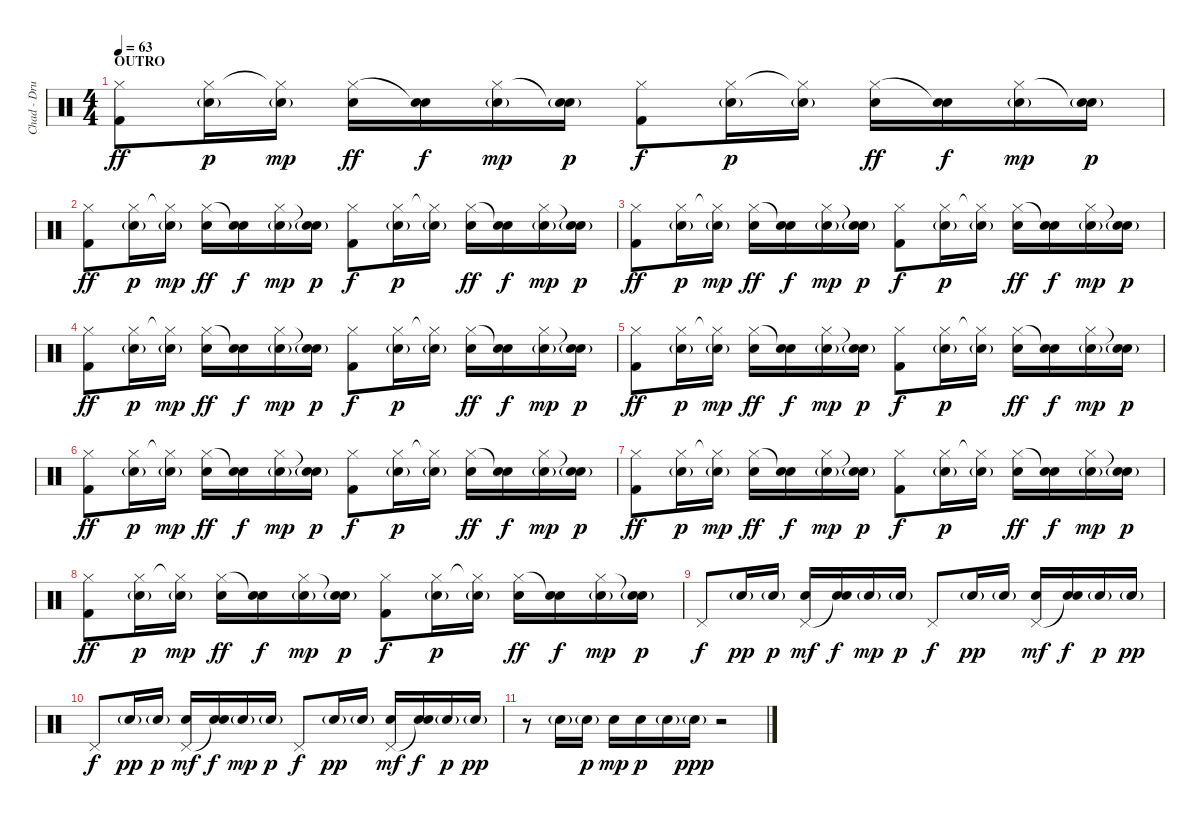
\track ("Chad - Drums" "Chad - Dru") {instrument percussion}
\staff {score}
\articulation defaults
\ts (4 4)
\section ("" "OUTRO")
\tempo 63
\clef neutral
\ks c
("Hi-Hat (closed)" "Kick (hit) 2").8{dy ff volume 12} ("Hi-Hat (closed)" "Snare (hit) 2"{g}).16{dy p} ("Hi-Hat (closed)"{t} "Snare (hit) 2"{g}).16{dy mp} ("Hi-Hat (closed)" "Snare (hit) 2").16{dy ff} ("Snare (hit)"{t} "Snare (hit) 2").16{dy f} ("Hi-Hat (closed)" "Snare (hit) 2"{g}).16{dy mp} ("Snare (hit)"{t} "Snare (hit) 2"{g}).16{dy p} ("Hi-Hat (closed)" "Kick (hit) 2").8{dy f} ("Hi-Hat (closed)" "Snare (hit) 2"{g}).16{dy p} ("Hi-Hat (closed)"{t} "Snare (hit) 2"{g}).16 ("Hi-Hat (closed)" "Snare (hit) 2").16{dy ff} ("Snare (hit)"{t} "Snare (hit) 2").16{dy f} ("Hi-Hat (closed)" "Snare (hit) 2"{g}).16{dy mp} ("Snare (hit)"{t} "Snare (hit) 2"{g}).16{dy p} |
("Hi-Hat (closed)" "Kick (hit) 2").8{dy ff volume 12} ("Hi-Hat (closed)" "Snare (hit) 2"{g}).16{dy p} ("Hi-Hat (closed)"{t} "Snare (hit) 2"{g}).16{dy mp} ("Hi-Hat (closed)" "Snare (hit) 2").16{dy ff} ("Snare (hit)"{t} "Snare (hit) 2").16{dy f} ("Hi-Hat (closed)" "Snare (hit) 2"{g}).16{dy mp} ("Snare (hit)"{t} "Snare (hit) 2"{g}).16{dy p} ("Hi-Hat (closed)" "Kick (hit) 2").8{dy f} ("Hi-Hat (closed)" "Snare (hit) 2"{g}).16{dy p} ("Hi-Hat (closed)"{t} "Snare (hit) 2"{g}).16 ("Hi-Hat (closed)" "Snare (hit) 2").16{dy ff} ("Snare (hit)"{t} "Snare (hit) 2").16{dy f} ("Hi-Hat (closed)" "Snare (hit) 2"{g}).16{dy mp} ("Snare (hit)"{t} "Snare (hit) 2"{g}).16{dy p} |
("Hi-Hat (closed)" "Kick (hit) 2").8{dy ff volume 12} ("Hi-Hat (closed)" "Snare (hit) 2"{g}).16{dy p} ("Hi-Hat (closed)"{t} "Snare (hit) 2"{g}).16{dy mp} ("Hi-Hat (closed)" "Snare (hit) 2").16{dy ff} ("Snare (hit)"{t} "Snare (hit) 2").16{dy f} ("Hi-Hat (closed)" "Snare (hit) 2"{g}).16{dy mp} ("Snare (hit)"{t} "Snare (hit) 2"{g}).16{dy p} ("Hi-Hat (closed)" "Kick (hit) 2").8{dy f} ("Hi-Hat (closed)" "Snare (hit) 2"{g}).16{dy p} ("Hi-Hat (closed)"{t} "Snare (hit) 2"{g}).16 ("Hi-Hat (closed)" "Snare (hit) 2").16{dy ff} ("Snare (hit)"{t} "Snare (hit) 2").16{dy f} ("Hi-Hat (closed)" "Snare (hit) 2"{g}).16{dy mp} ("Snare (hit)"{t} "Snare (hit) 2"{g}).16{dy p} |
("Hi-Hat (closed)" "Kick (hit) 2").8{dy ff volume 12} ("Hi-Hat (closed)" "Snare (hit) 2"{g}).16{dy p} ("Hi-Hat (closed)"{t} "Snare (hit) 2"{g}).16{dy mp} ("Hi-Hat (closed)" "Snare (hit) 2").16{dy ff} ("Snare (hit)"{t} "Snare (hit) 2").16{dy f} ("Hi-Hat (closed)" "Snare (hit) 2"{g}).16{dy mp} ("Snare (hit)"{t} "Snare (hit) 2"{g}).16{dy p} ("Hi-Hat (closed)" "Kick (hit) 2").8{dy f} ("Hi-Hat (closed)" "Snare (hit) 2"{g}).16{dy p} ("Hi-Hat (closed)"{t} "Snare (hit) 2"{g}).16 ("Hi-Hat (closed)" "Snare (hit) 2").16{dy ff} ("Snare (hit)"{t} "Snare (hit) 2").16{dy f} ("Hi-Hat (closed)" "Snare (hit) 2"{g}).16{dy mp} ("Snare (hit)"{t} "Snare (hit) 2"{g}).16{dy p} |
("Hi-Hat (closed)" "Kick (hit) 2").8{dy ff volume 12} ("Hi-Hat (closed)" "Snare (hit) 2"{g}).16{dy p} ("Hi-Hat (closed)"{t} "Snare (hit) 2"{g}).16{dy mp} ("Hi-Hat (closed)" "Snare (hit) 2").16{dy ff} ("Snare (hit)"{t} "Snare (hit) 2").16{dy f} ("Hi-Hat (closed)" "Snare (hit) 2"{g}).16{dy mp} ("Snare (hit)"{t} "Snare (hit) 2"{g}).16{dy p} ("Hi-Hat (closed)" "Kick (hit) 2").8{dy f} ("Hi-Hat (closed)" "Snare (hit) 2"{g}).16{dy p} ("Hi-Hat (closed)"{t} "Snare (hit) 2"{g}).16 ("Hi-Hat (closed)" "Snare (hit) 2").16{dy ff} ("Snare (hit)"{t} "Snare (hit) 2").16{dy f} ("Hi-Hat (closed)" "Snare (hit) 2"{g}).16{dy mp} ("Snare (hit)"{t} "Snare (hit) 2"{g}).16{dy p} |
("Hi-Hat (closed)" "Kick (hit) 2").8{dy ff volume 12} ("Hi-Hat (closed)" "Snare (hit) 2"{g}).16{dy p} ("Hi-Hat (closed)"{t} "Snare (hit) 2"{g}).16{dy mp} ("Hi-Hat (closed)" "Snare (hit) 2").16{dy ff} ("Snare (hit)"{t} "Snare (hit) 2").16{dy f} ("Hi-Hat (closed)" "Snare (hit) 2"{g}).16{dy mp} ("Snare (hit)"{t} "Snare (hit) 2"{g}).16{dy p} ("Hi-Hat (closed)" "Kick (hit) 2").8{dy f} ("Hi-Hat (closed)" "Snare (hit) 2"{g}).16{dy p} ("Hi-Hat (closed)"{t} "Snare (hit) 2"{g}).16 ("Hi-Hat (closed)" "Snare (hit) 2").16{dy ff} ("Snare (hit)"{t} "Snare (hit) 2").16{dy f} ("Hi-Hat (closed)" "Snare (hit) 2"{g}).16{dy mp} ("Snare (hit)"{t} "Snare (hit) 2"{g}).16{dy p} |
("Hi-Hat (closed)" "Kick (hit) 2").8{dy ff volume 12} ("Hi-Hat (closed)" "Snare (hit) 2"{g}).16{dy p} ("Hi-Hat (closed)"{t} "Snare (hit) 2"{g}).16{dy mp} ("Hi-Hat (closed)" "Snare (hit) 2").16{dy ff} ("Snare (hit)"{t} "Snare (hit) 2").16{dy f} ("Hi-Hat (closed)" "Snare (hit) 2"{g}).16{dy mp} ("Snare (hit)"{t} "Snare (hit) 2"{g}).16{dy p} ("Hi-Hat (closed)" "Kick (hit) 2").8{dy f} ("Hi-Hat (closed)" "Snare (hit) 2"{g}).16{dy p} ("Hi-Hat (closed)"{t} "Snare (hit) 2"{g}).16 ("Hi-Hat (closed)" "Snare (hit) 2").16{dy ff} ("Snare (hit)"{t} "Snare (hit) 2").16{dy f} ("Hi-Hat (closed)" "Snare (hit) 2"{g}).16{dy mp} ("Snare (hit)"{t} "Snare (hit) 2"{g}).16{dy p} |
("Hi-Hat (closed)" "Kick (hit) 2").8{dy ff volume 12} ("Hi-Hat (closed)" "Snare (hit) 2"{g}).16{dy p} ("Hi-Hat (closed)"{t} "Snare (hit) 2"{g}).16{dy mp} ("Hi-Hat (closed)" "Snare (hit) 2").16{dy ff} ("Snare (hit)"{t} "Snare (hit) 2").16{dy f} ("Hi-Hat (closed)" "Snare (hit) 2"{g}).16{dy mp} ("Snare (hit)"{t} "Snare (hit) 2"{g}).16{dy p} ("Hi-Hat (closed)" "Kick (hit) 2").8{dy f} ("Hi-Hat (closed)" "Snare (hit) 2"{g}).16{dy p} ("Hi-Hat (closed)"{t} "Snare (hit) 2"{g}).16 ("Hi-Hat (closed)" "Snare (hit) 2").16{dy ff} ("Snare (hit)"{t} "Snare (hit) 2").16{dy f} ("Hi-Hat (closed)" "Snare (hit) 2"{g}).16{dy mp} ("Snare (hit)"{t} "Snare (hit) 2"{g}).16{dy p} |
"Pedal Hi-Hat (hit)".8{dy f} "Snare (hit) 2"{g}.16{dy pp} "Snare (hit) 2"{g}.16{dy p} ("Pedal Hi-Hat (hit)" "Snare (hit) 2").16{dy mf} ("Snare (hit)"{t} "Snare (hit) 2").16{dy f} "Snare (hit) 2"{g}.16{dy mp} "Snare (hit) 2"{g}.16{dy p} "Pedal Hi-Hat (hit)".8{dy f} "Snare (hit) 2"{g}.16{dy pp} "Snare (hit) 2"{g}.16 ("Pedal Hi-Hat (hit)" "Snare (hit) 2").16{dy mf} ("Snare (hit)"{t} "Snare (hit) 2").16{dy f} "Snare (hit) 2"{g}.16{dy p} "Snare (hit) 2"{g}.16{dy pp} |
"Pedal Hi-Hat (hit)".8{dy f} "Snare (hit) 2"{g}.16{dy pp} "Snare (hit) 2"{g}.16{dy p} ("Pedal Hi-Hat (hit)" "Snare (hit) 2").16{dy mf} ("Snare (hit)"{t} "Snare (hit) 2").16{dy f} "Snare (hit) 2"{g}.16{dy mp} "Snare (hit) 2"{g}.16{dy p} "Pedal Hi-Hat (hit)".8{dy f} "Snare (hit) 2"{g}.16{dy pp} "Snare (hit) 2"{g}.16 ("Pedal Hi-Hat (hit)" "Snare (hit) 2").16{dy mf} ("Snare (hit)"{t} "Snare (hit) 2").16{dy f} "Snare (hit) 2"{g}.16{dy p} "Snare (hit) 2"{g}.16{dy pp} |
r.8 "Snare (hit) 2"{g}.16 "Snare (hit) 2"{g}.16{dy p} "Snare (hit) 2".16{dy mp} "Snare (hit) 2".16{dy p} "Snare (hit) 2"{g}.16 "Snare (hit) 2"{g}.16{dy ppp} r.2
